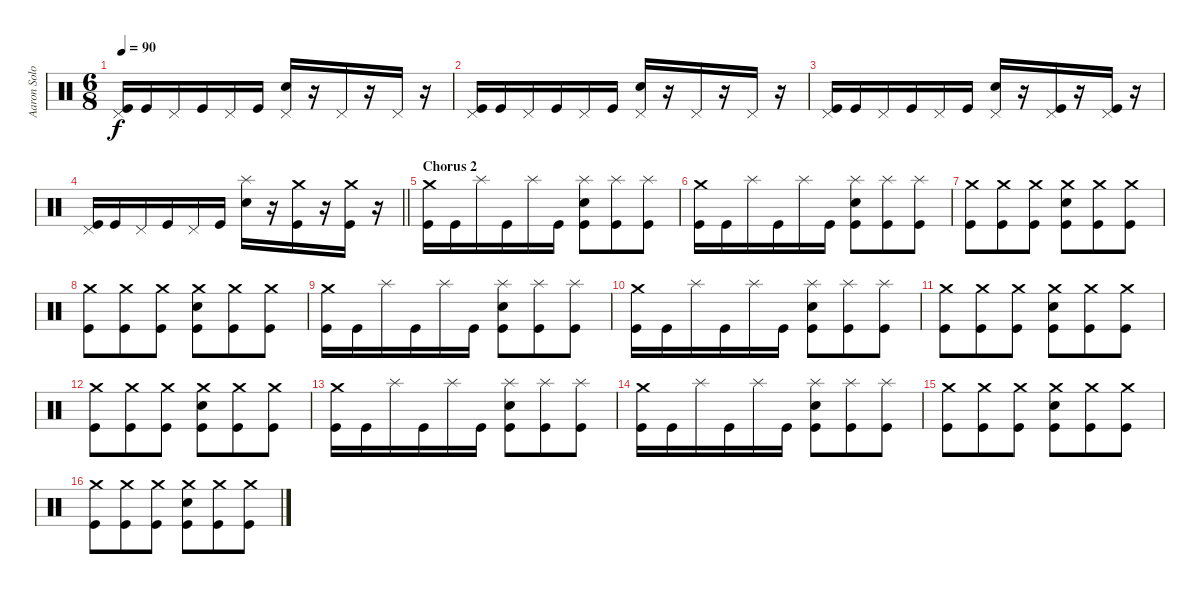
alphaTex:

\track ("Aaron Solowoniuk" "Aaron Solo") {instrument percussion}
\staff {score}
\articulation defaults
\ts (6 8)
\tempo 90
\clef neutral
\ks c
("Pedal Hi-Hat (hit)" "Kick (hit)").16{dy f} "Kick (hit)".16 "Pedal Hi-Hat (hit)".16 "Kick (hit)".16 "Pedal Hi-Hat (hit)".16 "Kick (hit)".16 ("Pedal Hi-Hat (hit)" "Electric Snare (hit)").16 r.16 "Pedal Hi-Hat (hit)".16 r.16 "Pedal Hi-Hat (hit)".16 r.16 |
("Pedal Hi-Hat (hit)" "Kick (hit)").16 "Kick (hit)".16 "Pedal Hi-Hat (hit)".16 "Kick (hit)".16 "Pedal Hi-Hat (hit)".16 "Kick (hit)".16 ("Pedal Hi-Hat (hit)" "Electric Snare (hit)").16 r.16 "Pedal Hi-Hat (hit)".16 r.16 "Pedal Hi-Hat (hit)".16 r.16 |
("Pedal Hi-Hat (hit)" "Kick (hit)").16 "Kick (hit)".16 "Pedal Hi-Hat (hit)".16 "Kick (hit)".16 "Pedal Hi-Hat (hit)".16 "Kick (hit)".16 ("Pedal Hi-Hat (hit)" "Electric Snare (hit)").16 r.16 ("Pedal Hi-Hat (hit)" "Kick (hit)").16 r.16 ("Pedal Hi-Hat (hit)" "Kick (hit)").16 r.16 |
\barLineRight lightlight
("Pedal Hi-Hat (hit)" "Kick (hit)").16 "Kick (hit)".16 "Pedal Hi-Hat (hit)".16 "Kick (hit)".16 "Pedal Hi-Hat (hit)".16 "Kick (hit)".16 ("Splash (hit)" "Electric Snare (hit)").16 r.16 ("Crash medium (hit)" "Kick (hit)").16 r.16 ("Crash medium (hit)" "Kick (hit)").16 r.16 |
\section ("" "Chorus 2")
("Crash medium (hit)" "Kick (hit)").16 "Kick (hit)".16 "Splash (hit)".16 "Kick (hit)".16 "Splash (hit)".16 "Kick (hit)".16 ("Splash (hit)" "Electric Snare (hit)" "Kick (hit)").8 ("Splash (hit)" "Kick (hit)").8 ("Splash (hit)" "Kick (hit)").8 |
("Crash medium (hit)" "Kick (hit)").16 "Kick (hit)".16 "Splash (hit)".16 "Kick (hit)".16 "Splash (hit)".16 "Kick (hit)".16 ("Splash (hit)" "Electric Snare (hit)" "Kick (hit)").8 ("Splash (hit)" "Kick (hit)").8 ("Splash (hit)" "Kick (hit)").8 |
("Crash medium (hit)" "Kick (hit)").8 ("Crash medium (hit)" "Kick (hit)").8 ("Crash medium (hit)" "Kick (hit)").8 ("Crash medium (hit)" "Electric Snare (hit)" "Kick (hit)").8 ("Crash medium (hit)" "Kick (hit)").8 ("Crash medium (hit)" "Kick (hit)").8 |
("Crash medium (hit)" "Kick (hit)").8 ("Crash medium (hit)" "Kick (hit)").8 ("Crash medium (hit)" "Kick (hit)").8 ("Crash medium (hit)" "Electric Snare (hit)" "Kick (hit)").8 ("Crash medium (hit)" "Kick (hit)").8 ("Crash medium (hit)" "Kick (hit)").8 |
("Crash medium (hit)" "Kick (hit)").16 "Kick (hit)".16 "Splash (hit)".16 "Kick (hit)".16 "Splash (hit)".16 "Kick (hit)".16 ("Splash (hit)" "Electric Snare (hit)" "Kick (hit)").8 ("Splash (hit)" "Kick (hit)").8 ("Splash (hit)" "Kick (hit)").8 |
("Crash medium (hit)" "Kick (hit)").16 "Kick (hit)".16 "Splash (hit)".16 "Kick (hit)".16 "Splash (hit)".16 "Kick (hit)".16 ("Splash (hit)" "Electric Snare (hit)" "Kick (hit)").8 ("Splash (hit)" "Kick (hit)").8 ("Splash (hit)" "Kick (hit)").8 |
("Crash medium (hit)" "Kick (hit)").8 ("Crash medium (hit)" "Kick (hit)").8 ("Crash medium (hit)" "Kick (hit)").8 ("Crash medium (hit)" "Electric Snare (hit)" "Kick (hit)").8 ("Crash medium (hit)" "Kick (hit)").8 ("Crash medium (hit)" "Kick (hit)").8 |
("Crash medium (hit)" "Kick (hit)").8 ("Crash medium (hit)" "Kick (hit)").8 ("Crash medium (hit)" "Kick (hit)").8 ("Crash medium (hit)" "Electric Snare (hit)" "Kick (hit)").8 ("Crash medium (hit)" "Kick (hit)").8 ("Crash medium (hit)" "Kick (hit)").8 |
("Crash medium (hit)" "Kick (hit)").16 "Kick (hit)".16 "Splash (hit)".16 "Kick (hit)".16 "Splash (hit)".16 "Kick (hit)".16 ("Splash (hit)" "Electric Snare (hit)" "Kick (hit)").8 ("Splash (hit)" "Kick (hit)").8 ("Splash (hit)" "Kick (hit)").8 |
("Crash medium (hit)" "Kick (hit)").16 "Kick (hit)".16 "Splash (hit)".16 "Kick (hit)".16 "Splash (hit)".16 "Kick (hit)".16 ("Splash (hit)" "Electric Snare (hit)" "Kick (hit)").8 ("Splash (hit)" "Kick (hit)").8 ("Splash (hit)" "Kick (hit)").8 |
("Crash medium (hit)" "Kick (hit)").8 ("Crash medium (hit)" "Kick (hit)").8 ("Crash medium (hit)" "Kick (hit)").8 ("Crash medium (hit)" "Electric Snare (hit)" "Kick (hit)").8 ("Crash medium (hit)" "Kick (hit)").8 ("Crash medium (hit)" "Kick (hit)").8 |
("Crash medium (hit)" "Kick (hit)").8 ("Crash medium (hit)" "Kick (hit)").8 ("Crash medium (hit)" "Kick (hit)").8 ("Crash medium (hit)" "Electric Snare (hit)" "Kick (hit)").8 ("Crash medium (hit)" "Kick (hit)").8 ("Crash medium (hit)" "Kick (hit)").8
